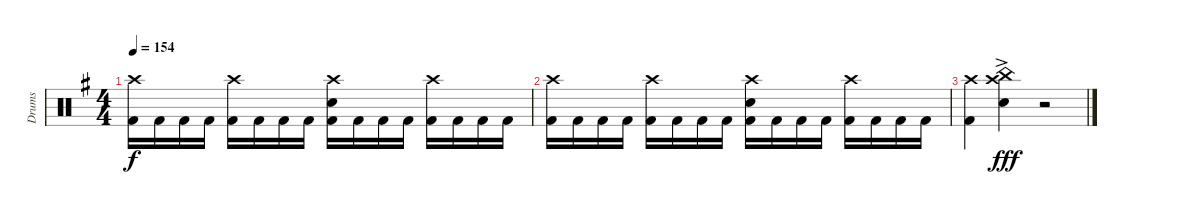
\track ("Drums" "Drums") {instrument percussion}
\staff {score}
\articulation defaults
\ts (4 4)
\tempo 154
\clef neutral
\ks eminor
("Crash high (hit)" "Kick (hit) 2").16{dy f} "Kick (hit) 2".16 "Kick (hit) 2".16 "Kick (hit) 2".16 ("Crash high (hit)" "Kick (hit) 2").16 "Kick (hit) 2".16 "Kick (hit) 2".16 "Kick (hit) 2".16 ("Crash high (hit)" "Snare (hit) 2" "Kick (hit) 2").16 "Kick (hit) 2".16 "Kick (hit) 2".16 "Kick (hit) 2".16 ("Crash high (hit)" "Kick (hit) 2").16 "Kick (hit) 2".16 "Kick (hit) 2".16 "Kick (hit) 2".16 |
("Crash high (hit)" "Kick (hit) 2").16 "Kick (hit) 2".16 "Kick (hit) 2".16 "Kick (hit) 2".16 ("Crash high (hit)" "Kick (hit) 2").16 "Kick (hit) 2".16 "Kick (hit) 2".16 "Kick (hit) 2".16 ("Crash high (hit)" "Snare (hit) 2" "Kick (hit) 2").16 "Kick (hit) 2".16 "Kick (hit) 2".16 "Kick (hit) 2".16 ("Crash high (hit)" "Kick (hit) 2").16 "Kick (hit) 2".16 "Kick (hit) 2".16 "Kick (hit) 2".16 |
("Crash high (hit)" "Kick (hit) 2").4 ("China (hit)"{ac} "Crash high (hit)" "Snare (hit) 2"{ac}).4{dy fff} r.2
